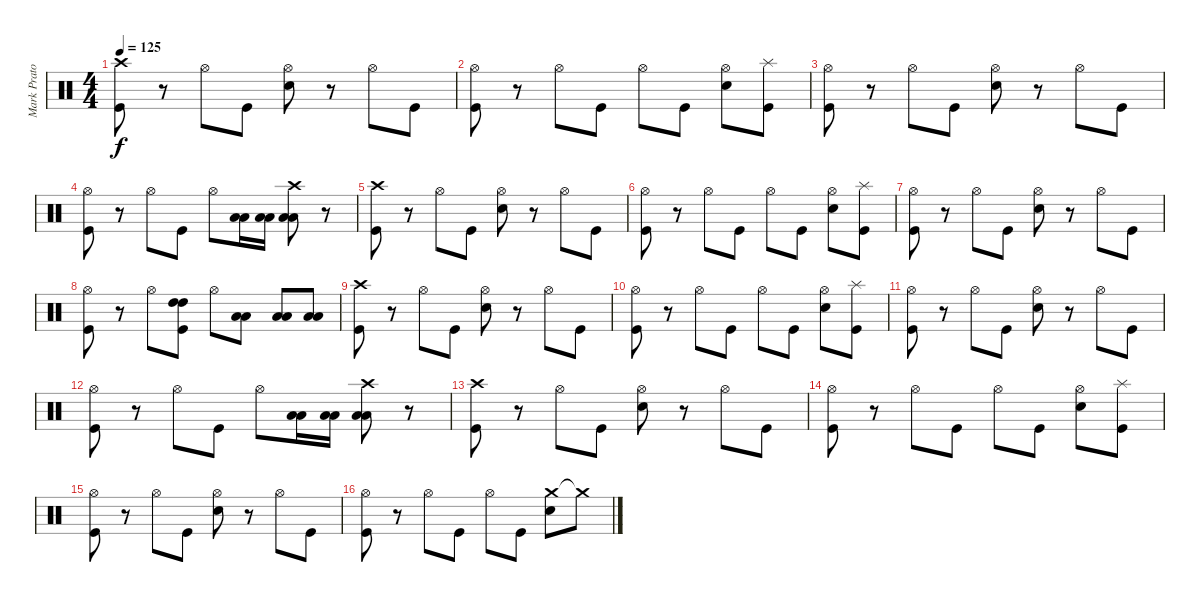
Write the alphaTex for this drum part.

\track ("Mark Prator" "Mark Prato") {instrument percussion}
\staff {score}
\articulation defaults
\ts (4 4)
\tempo 125
\clef neutral
\ks c
("Crash high (hit)" "Kick (hit)").8{dy f} r.8 "Hi-Hat (open)".8 "Kick (hit)".8 ("Hi-Hat (open)" "Electric Snare (hit)").8 r.8 "Hi-Hat (open)".8 "Kick (hit)".8 |
("Hi-Hat (open)" "Kick (hit)").8 r.8 "Hi-Hat (open)".8 "Kick (hit)".8 "Hi-Hat (open)".8 "Kick (hit)".8 ("Hi-Hat (open)" "Electric Snare (hit)").8 ("Splash (hit)" "Kick (hit)").8 |
("Hi-Hat (open)" "Kick (hit)").8 r.8 "Hi-Hat (open)".8 "Kick (hit)".8 ("Hi-Hat (open)" "Electric Snare (hit)").8 r.8 "Hi-Hat (open)".8 "Kick (hit)".8 |
("Hi-Hat (open)" "Kick (hit)").8 r.8 "Hi-Hat (open)".8 "Kick (hit)".8 "Hi-Hat (open)".8 ("Low Tom (hit)" "Low Tom (hit)").16 ("Low Tom (hit)" "Low Tom (hit)").16 ("Crash high (hit)" "Low Floor Tom (hit)" "Low Floor Tom (hit)").8 r.8 |
("Crash high (hit)" "Kick (hit)").8 r.8 "Hi-Hat (open)".8 "Kick (hit)".8 ("Hi-Hat (open)" "Electric Snare (hit)").8 r.8 "Hi-Hat (open)".8 "Kick (hit)".8 |
("Hi-Hat (open)" "Kick (hit)").8 r.8 "Hi-Hat (open)".8 "Kick (hit)".8 "Hi-Hat (open)".8 "Kick (hit)".8 ("Hi-Hat (open)" "Electric Snare (hit)").8 ("Splash (hit)" "Kick (hit)").8 |
("Hi-Hat (open)" "Kick (hit)").8 r.8 "Hi-Hat (open)".8 "Kick (hit)".8 ("Hi-Hat (open)" "Electric Snare (hit)").8 r.8 "Hi-Hat (open)".8 "Kick (hit)".8 |
("Hi-Hat (open)" "Kick (hit)").8 r.8 "Hi-Hat (open)".8 ("High Tom (hit)" "High Tom (hit)" "Kick (hit)").8 "Hi-Hat (open)".8 ("Low Tom (hit)" "Low Tom (hit)").8 ("Low Tom (hit)" "Low Tom (hit)").8 ("Low Tom (hit)" "Low Tom (hit)").8 |
("Crash high (hit)" "Kick (hit)").8 r.8 "Hi-Hat (open)".8 "Kick (hit)".8 ("Hi-Hat (open)" "Electric Snare (hit)").8 r.8 "Hi-Hat (open)".8 "Kick (hit)".8 |
("Hi-Hat (open)" "Kick (hit)").8 r.8 "Hi-Hat (open)".8 "Kick (hit)".8 "Hi-Hat (open)".8 "Kick (hit)".8 ("Hi-Hat (open)" "Electric Snare (hit)").8 ("Splash (hit)" "Kick (hit)").8 |
("Hi-Hat (open)" "Kick (hit)").8 r.8 "Hi-Hat (open)".8 "Kick (hit)".8 ("Hi-Hat (open)" "Electric Snare (hit)").8 r.8 "Hi-Hat (open)".8 "Kick (hit)".8 |
("Hi-Hat (open)" "Kick (hit)").8 r.8 "Hi-Hat (open)".8 "Kick (hit)".8 "Hi-Hat (open)".8 ("Low Tom (hit)" "Low Tom (hit)").16 ("Low Tom (hit)" "Low Tom (hit)").16 ("Crash high (hit)" "Low Floor Tom (hit)" "Low Floor Tom (hit)").8 r.8 |
("Crash high (hit)" "Kick (hit)").8 r.8 "Hi-Hat (open)".8 "Kick (hit)".8 ("Hi-Hat (open)" "Electric Snare (hit)").8 r.8 "Hi-Hat (open)".8 "Kick (hit)".8 |
("Hi-Hat (open)" "Kick (hit)").8 r.8 "Hi-Hat (open)".8 "Kick (hit)".8 "Hi-Hat (open)".8 "Kick (hit)".8 ("Hi-Hat (open)" "Electric Snare (hit)").8 ("Splash (hit)" "Kick (hit)").8 |
("Hi-Hat (open)" "Kick (hit)").8 r.8 "Hi-Hat (open)".8 "Kick (hit)".8 ("Hi-Hat (open)" "Electric Snare (hit)").8 r.8 "Hi-Hat (open)".8 "Kick (hit)".8 |
("Hi-Hat (open)" "Kick (hit)").8 r.8 "Hi-Hat (open)".8 "Kick (hit)".8 "Hi-Hat (open)".8 "Kick (hit)".8 ("Crash medium (hit)" "Electric Snare (hit)").8 "Crash medium (hit)"{t}.8
